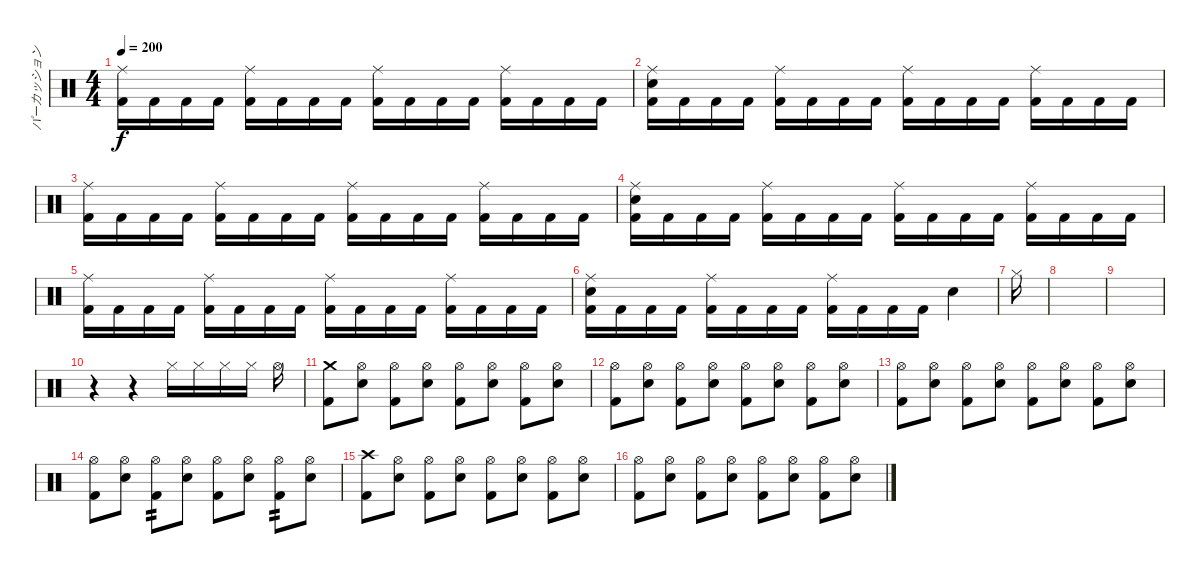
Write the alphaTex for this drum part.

\track ("パーカッション" "パーカッション") {instrument percussion}
\staff {score}
\articulation defaults
\ts (4 4)
\tempo 200
\clef neutral
\ks c
("Ride (middle)" "Kick (hit) 2").16{dy f} "Kick (hit) 2".16 "Kick (hit) 2".16 "Kick (hit) 2".16 ("Ride (middle)" "Kick (hit) 2").16 "Kick (hit) 2".16 "Kick (hit) 2".16 "Kick (hit) 2".16 ("Ride (middle)" "Kick (hit) 2").16 "Kick (hit) 2".16 "Kick (hit) 2".16 "Kick (hit) 2".16 ("Ride (middle)" "Kick (hit) 2").16 "Kick (hit) 2".16 "Kick (hit) 2".16 "Kick (hit) 2".16 |
("Snare (hit) 2" "Ride (middle)" "Kick (hit) 2").16 "Kick (hit) 2".16 "Kick (hit) 2".16 "Kick (hit) 2".16 ("Ride (middle)" "Kick (hit) 2").16 "Kick (hit) 2".16 "Kick (hit) 2".16 "Kick (hit) 2".16 ("Ride (middle)" "Kick (hit) 2").16 "Kick (hit) 2".16 "Kick (hit) 2".16 "Kick (hit) 2".16 ("Ride (middle)" "Kick (hit) 2").16 "Kick (hit) 2".16 "Kick (hit) 2".16 "Kick (hit) 2".16 |
("Ride (middle)" "Kick (hit) 2").16 "Kick (hit) 2".16 "Kick (hit) 2".16 "Kick (hit) 2".16 ("Ride (middle)" "Kick (hit) 2").16 "Kick (hit) 2".16 "Kick (hit) 2".16 "Kick (hit) 2".16 ("Ride (middle)" "Kick (hit) 2").16 "Kick (hit) 2".16 "Kick (hit) 2".16 "Kick (hit) 2".16 ("Ride (middle)" "Kick (hit) 2").16 "Kick (hit) 2".16 "Kick (hit) 2".16 "Kick (hit) 2".16 |
("Snare (hit) 2" "Ride (middle)" "Kick (hit) 2").16 "Kick (hit) 2".16 "Kick (hit) 2".16 "Kick (hit) 2".16 ("Ride (middle)" "Kick (hit) 2").16 "Kick (hit) 2".16 "Kick (hit) 2".16 "Kick (hit) 2".16 ("Ride (middle)" "Kick (hit) 2").16 "Kick (hit) 2".16 "Kick (hit) 2".16 "Kick (hit) 2".16 ("Ride (middle)" "Kick (hit) 2").16 "Kick (hit) 2".16 "Kick (hit) 2".16 "Kick (hit) 2".16 |
("Ride (middle)" "Kick (hit) 2").16 "Kick (hit) 2".16 "Kick (hit) 2".16 "Kick (hit) 2".16 ("Ride (middle)" "Kick (hit) 2").16 "Kick (hit) 2".16 "Kick (hit) 2".16 "Kick (hit) 2".16 ("Ride (middle)" "Kick (hit) 2").16 "Kick (hit) 2".16 "Kick (hit) 2".16 "Kick (hit) 2".16 ("Ride (middle)" "Kick (hit) 2").16 "Kick (hit) 2".16 "Kick (hit) 2".16 "Kick (hit) 2".16 |
("Snare (hit) 2" "Ride (middle)" "Kick (hit) 2").16 "Kick (hit) 2".16 "Kick (hit) 2".16 "Kick (hit) 2".16 ("Ride (middle)" "Kick (hit) 2").16 "Kick (hit) 2".16 "Kick (hit) 2".16 "Kick (hit) 2".16 ("Ride (middle)" "Kick (hit) 2").16 "Kick (hit) 2".16 "Kick (hit) 2".16 "Kick (hit) 2".16 "Snare (hit) 2".4 |
"Hi-Hat (closed)".16 |
|
|
r.4 r.4 "Hi-Hat (closed)".16 "Hi-Hat (closed)".16 "Hi-Hat (closed)".16 "Hi-Hat (closed)".16 "Hi-Hat (open)".16 |
("Crash medium (hit)" "Kick (hit) 2").8 ("Hi-Hat (open)" "Snare (hit) 2").8 ("Hi-Hat (open)" "Kick (hit) 2").8 ("Hi-Hat (open)" "Snare (hit) 2").8 ("Hi-Hat (open)" "Kick (hit) 2").8 ("Hi-Hat (open)" "Snare (hit) 2").8 ("Hi-Hat (open)" "Kick (hit) 2").8 ("Hi-Hat (open)" "Snare (hit) 2").8 |
("Hi-Hat (open)" "Kick (hit) 2").8 ("Hi-Hat (open)" "Snare (hit) 2").8 ("Hi-Hat (open)" "Kick (hit) 2").8 ("Hi-Hat (open)" "Snare (hit) 2").8 ("Hi-Hat (open)" "Kick (hit) 2").8 ("Hi-Hat (open)" "Snare (hit) 2").8 ("Hi-Hat (open)" "Kick (hit) 2").8 ("Hi-Hat (open)" "Snare (hit) 2").8 |
("Hi-Hat (open)" "Kick (hit) 2").8 ("Hi-Hat (open)" "Snare (hit) 2").8 ("Hi-Hat (open)" "Kick (hit) 2").8 ("Hi-Hat (open)" "Snare (hit) 2").8 ("Hi-Hat (open)" "Kick (hit) 2").8 ("Hi-Hat (open)" "Snare (hit) 2").8 ("Hi-Hat (open)" "Kick (hit) 2").8 ("Hi-Hat (open)" "Snare (hit) 2").8 |
("Hi-Hat (open)" "Kick (hit) 2").8 ("Hi-Hat (open)" "Snare (hit) 2").8 ("Hi-Hat (open)" "Kick (hit) 2").8{tp 2} ("Hi-Hat (open)" "Snare (hit) 2").8 ("Hi-Hat (open)" "Kick (hit) 2").8 ("Hi-Hat (open)" "Snare (hit) 2").8 ("Hi-Hat (open)" "Kick (hit) 2").8{tp 2} ("Hi-Hat (open)" "Snare (hit) 2").8 |
("Crash high (hit)" "Kick (hit) 2").8 ("Hi-Hat (open)" "Snare (hit) 2").8 ("Hi-Hat (open)" "Kick (hit) 2").8 ("Hi-Hat (open)" "Snare (hit) 2").8 ("Hi-Hat (open)" "Kick (hit) 2").8 ("Hi-Hat (open)" "Snare (hit) 2").8 ("Hi-Hat (open)" "Kick (hit) 2").8 ("Hi-Hat (open)" "Snare (hit) 2").8 |
("Hi-Hat (open)" "Kick (hit) 2").8 ("Hi-Hat (open)" "Snare (hit) 2").8 ("Hi-Hat (open)" "Kick (hit) 2").8 ("Hi-Hat (open)" "Snare (hit) 2").8 ("Hi-Hat (open)" "Kick (hit) 2").8 ("Hi-Hat (open)" "Snare (hit) 2").8 ("Hi-Hat (open)" "Kick (hit) 2").8 ("Hi-Hat (open)" "Snare (hit) 2").8
